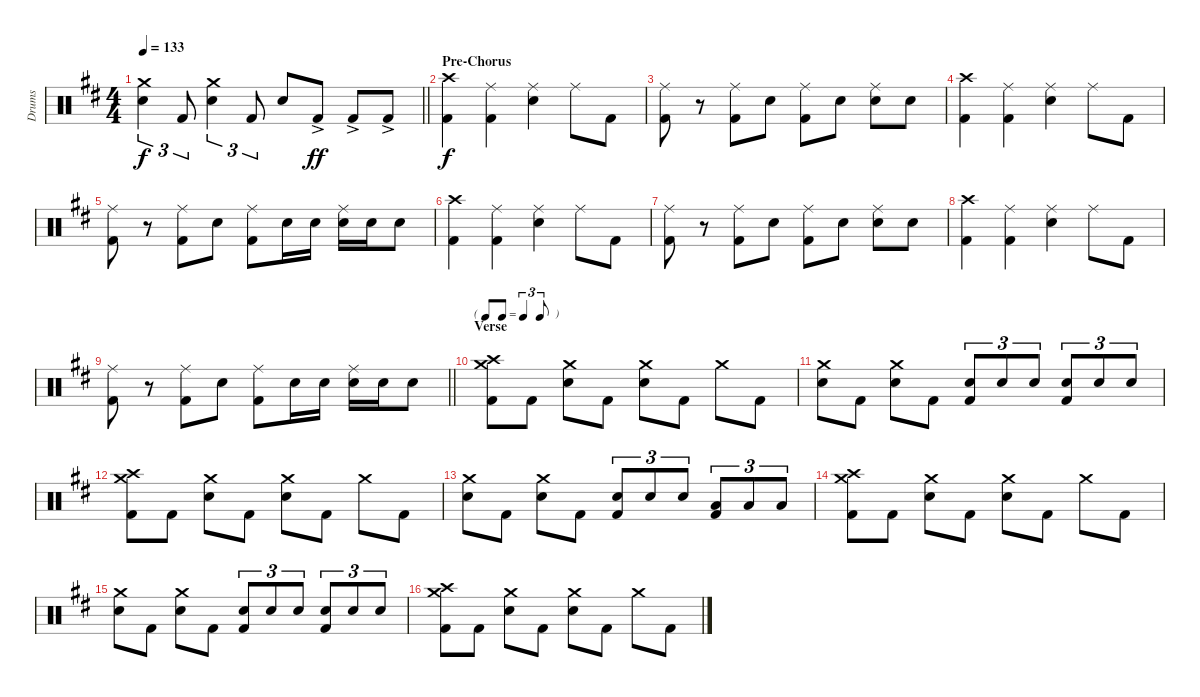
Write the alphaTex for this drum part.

\track ("Drums" "Drums") {instrument percussion}
\staff {score}
\articulation defaults
\ts (4 4)
\tempo 133
\clef neutral
\barLineRight lightlight
\ks d
("Crash medium (hit)" "Snare (hit) 2").4{tu (3 2) dy f} "Kick (hit) 2".8{tu (3 2)} ("Crash medium (hit)" "Snare (hit) 2").4{tu (3 2)} "Kick (hit) 2".8{tu (3 2)} "Snare (hit) 2".8 "Kick (hit) 2"{ac}.8{dy ff} "Kick (hit) 2"{ac}.8 "Kick (hit) 2"{ac}.8 |
\section ("" "Pre-Chorus")
("Crash high (hit)" "Kick (hit) 2").4{dy f} ("Ride (middle)" "Kick (hit) 2").4 ("Ride (middle)" "Snare (hit) 2").4 "Ride (middle)".8 "Kick (hit) 2".8 |
("Ride (middle)" "Kick (hit) 2").8 r.8 ("Ride (middle)" "Kick (hit) 2").8 "Snare (hit) 2".8 ("Ride (middle)" "Kick (hit) 2").8 "Snare (hit) 2".8 ("Ride (middle)" "Snare (hit) 2").8 "Snare (hit) 2".8 |
("Crash high (hit)" "Kick (hit) 2").4 ("Ride (middle)" "Kick (hit) 2").4 ("Ride (middle)" "Snare (hit) 2").4 "Ride (middle)".8 "Kick (hit) 2".8 |
("Ride (middle)" "Kick (hit) 2").8 r.8 ("Ride (middle)" "Kick (hit) 2").8 "Snare (hit) 2".8 ("Ride (middle)" "Kick (hit) 2").8 "Snare (hit) 2".16 "Snare (hit) 2".16 ("Ride (middle)" "Snare (hit) 2").16 "Snare (hit) 2".16 "Snare (hit) 2".8 |
("Crash high (hit)" "Kick (hit) 2").4 ("Ride (middle)" "Kick (hit) 2").4 ("Ride (middle)" "Snare (hit) 2").4 "Ride (middle)".8 "Kick (hit) 2".8 |
("Ride (middle)" "Kick (hit) 2").8 r.8 ("Ride (middle)" "Kick (hit) 2").8 "Snare (hit) 2".8 ("Ride (middle)" "Kick (hit) 2").8 "Snare (hit) 2".8 ("Ride (middle)" "Snare (hit) 2").8 "Snare (hit) 2".8 |
("Crash high (hit)" "Kick (hit) 2").4 ("Ride (middle)" "Kick (hit) 2").4 ("Ride (middle)" "Snare (hit) 2").4 "Ride (middle)".8 "Kick (hit) 2".8 |
\barLineRight lightlight
("Ride (middle)" "Kick (hit) 2").8 r.8 ("Ride (middle)" "Kick (hit) 2").8 "Snare (hit) 2".8 ("Ride (middle)" "Kick (hit) 2").8 "Snare (hit) 2".16 "Snare (hit) 2".16 ("Ride (middle)" "Snare (hit) 2").16 "Snare (hit) 2".16 "Snare (hit) 2".8 |
\tf triplet8th
\section ("" "Verse")
("Crash high (hit)" "Crash medium (hit)" "Kick (hit) 2").8 "Kick (hit) 2".8 ("Crash medium (hit)" "Snare (hit) 2").8 "Kick (hit) 2".8 ("Crash medium (hit)" "Snare (hit) 2").8 "Kick (hit) 2".8 "Crash medium (hit)".8 "Kick (hit) 2".8 |
("Crash medium (hit)" "Snare (hit) 2").8 "Kick (hit) 2".8 ("Crash medium (hit)" "Snare (hit) 2").8 "Kick (hit) 2".8 ("Snare (hit) 2" "Kick (hit) 2").8{tu (3 2)} "Snare (hit) 2".8{tu (3 2)} "Snare (hit) 2".8{tu (3 2)} ("Snare (hit) 2" "Kick (hit) 2").8{tu (3 2)} "Snare (hit) 2".8{tu (3 2)} "Snare (hit) 2".8{tu (3 2)} |
("Crash high (hit)" "Crash medium (hit)" "Kick (hit) 2").8 "Kick (hit) 2".8 ("Crash medium (hit)" "Snare (hit) 2").8 "Kick (hit) 2".8 ("Crash medium (hit)" "Snare (hit) 2").8 "Kick (hit) 2".8 "Crash medium (hit)".8 "Kick (hit) 2".8 |
("Crash medium (hit)" "Snare (hit) 2").8 "Kick (hit) 2".8 ("Crash medium (hit)" "Snare (hit) 2").8 "Kick (hit) 2".8 ("Snare (hit) 2" "Kick (hit) 2").8{tu (3 2)} "Snare (hit) 2".8{tu (3 2)} "Snare (hit) 2".8{tu (3 2)} ("Low Tom (hit)" "Kick (hit) 2").8{tu (3 2)} "Low Tom (hit)".8{tu (3 2)} "Low Tom (hit)".8{tu (3 2)} |
("Crash high (hit)" "Crash medium (hit)" "Kick (hit) 2").8 "Kick (hit) 2".8 ("Crash medium (hit)" "Snare (hit) 2").8 "Kick (hit) 2".8 ("Crash medium (hit)" "Snare (hit) 2").8 "Kick (hit) 2".8 "Crash medium (hit)".8 "Kick (hit) 2".8 |
("Crash medium (hit)" "Snare (hit) 2").8 "Kick (hit) 2".8 ("Crash medium (hit)" "Snare (hit) 2").8 "Kick (hit) 2".8 ("Snare (hit) 2" "Kick (hit) 2").8{tu (3 2)} "Snare (hit) 2".8{tu (3 2)} "Snare (hit) 2".8{tu (3 2)} ("Snare (hit) 2" "Kick (hit) 2").8{tu (3 2)} "Snare (hit) 2".8{tu (3 2)} "Snare (hit) 2".8{tu (3 2)} |
("Crash high (hit)" "Crash medium (hit)" "Kick (hit) 2").8 "Kick (hit) 2".8 ("Crash medium (hit)" "Snare (hit) 2").8 "Kick (hit) 2".8 ("Crash medium (hit)" "Snare (hit) 2").8 "Kick (hit) 2".8 "Crash medium (hit)".8 "Kick (hit) 2".8
